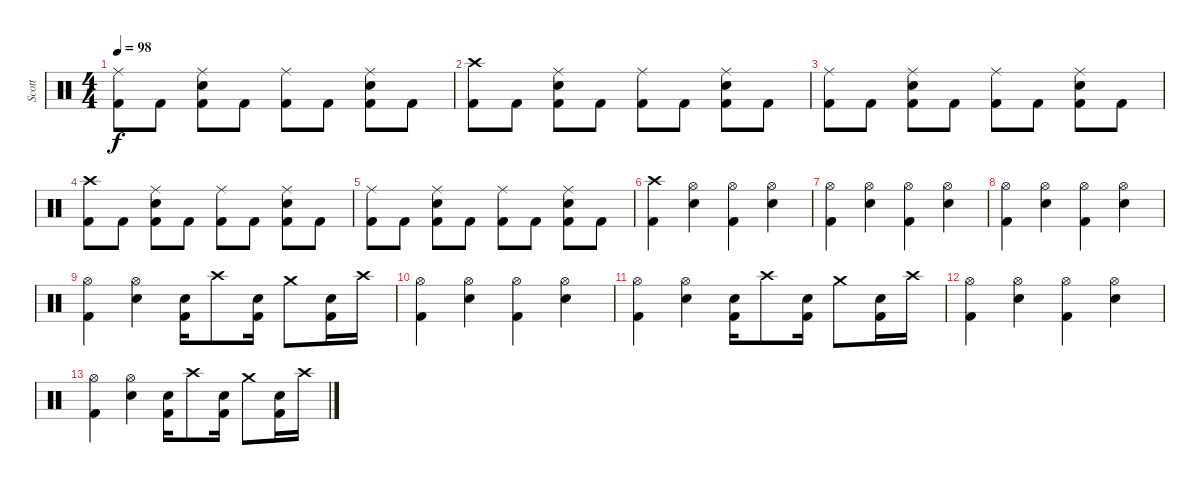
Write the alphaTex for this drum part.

\track ("Scott" "Scott") {instrument percussion}
\staff {score}
\articulation defaults
\ts (4 4)
\tempo 98
\clef neutral
\ks c
("Ride (middle)" "Kick (hit) 2").8{dy f} "Kick (hit) 2".8 ("Ride (middle)" "Electric Snare (hit)" "Kick (hit) 2").8 "Kick (hit) 2".8 ("Ride (middle)" "Kick (hit) 2").8 "Kick (hit) 2".8 ("Ride (middle)" "Electric Snare (hit)" "Kick (hit) 2").8 "Kick (hit) 2".8 |
("Crash high (hit)" "Kick (hit) 2").8 "Kick (hit) 2".8 ("Ride (middle)" "Electric Snare (hit)" "Kick (hit) 2").8 "Kick (hit) 2".8 ("Ride (middle)" "Kick (hit) 2").8 "Kick (hit) 2".8 ("Ride (middle)" "Electric Snare (hit)" "Kick (hit) 2").8 "Kick (hit) 2".8 |
("Ride (middle)" "Kick (hit) 2").8 "Kick (hit) 2".8 ("Ride (middle)" "Electric Snare (hit)" "Kick (hit) 2").8 "Kick (hit) 2".8 ("Ride (middle)" "Kick (hit) 2").8 "Kick (hit) 2".8 ("Ride (middle)" "Electric Snare (hit)" "Kick (hit) 2").8 "Kick (hit) 2".8 |
("Crash high (hit)" "Kick (hit) 2").8 "Kick (hit) 2".8 ("Ride (middle)" "Electric Snare (hit)" "Kick (hit) 2").8 "Kick (hit) 2".8 ("Ride (middle)" "Kick (hit) 2").8 "Kick (hit) 2".8 ("Ride (middle)" "Electric Snare (hit)" "Kick (hit) 2").8 "Kick (hit) 2".8 |
("Ride (middle)" "Kick (hit) 2").8 "Kick (hit) 2".8 ("Ride (middle)" "Electric Snare (hit)" "Kick (hit) 2").8 "Kick (hit) 2".8 ("Ride (middle)" "Kick (hit) 2").8 "Kick (hit) 2".8 ("Ride (middle)" "Electric Snare (hit)" "Kick (hit) 2").8 "Kick (hit) 2".8 |
("Crash high (hit)" "Kick (hit) 2").4 ("Hi-Hat (open)" "Snare (hit) 2").4 ("Hi-Hat (open)" "Kick (hit) 2").4 ("Hi-Hat (open)" "Snare (hit) 2").4 |
("Hi-Hat (open)" "Kick (hit) 2").4 ("Hi-Hat (open)" "Snare (hit) 2").4 ("Hi-Hat (open)" "Kick (hit) 2").4 ("Hi-Hat (open)" "Snare (hit) 2").4 |
("Hi-Hat (open)" "Kick (hit) 2").4 ("Hi-Hat (open)" "Snare (hit) 2").4 ("Hi-Hat (open)" "Kick (hit) 2").4 ("Hi-Hat (open)" "Snare (hit) 2").4 |
("Hi-Hat (open)" "Kick (hit) 2").4 ("Hi-Hat (open)" "Snare (hit) 2").4 ("Snare (hit) 2" "Kick (hit) 2").16 "Crash high (hit)".8 ("Snare (hit) 2" "Kick (hit) 2").16 "Crash medium (hit)".8 ("Snare (hit) 2" "Kick (hit) 2").16 "Crash high (hit)".16 |
("Hi-Hat (open)" "Kick (hit) 2").4 ("Hi-Hat (open)" "Snare (hit) 2").4 ("Hi-Hat (open)" "Kick (hit) 2").4 ("Hi-Hat (open)" "Snare (hit) 2").4 |
("Hi-Hat (open)" "Kick (hit) 2").4 ("Hi-Hat (open)" "Snare (hit) 2").4 ("Snare (hit) 2" "Kick (hit) 2").16 "Crash high (hit)".8 ("Snare (hit) 2" "Kick (hit) 2").16 "Crash medium (hit)".8 ("Snare (hit) 2" "Kick (hit) 2").16 "Crash high (hit)".16 |
("Hi-Hat (open)" "Kick (hit) 2").4 ("Hi-Hat (open)" "Snare (hit) 2").4 ("Hi-Hat (open)" "Kick (hit) 2").4 ("Hi-Hat (open)" "Snare (hit) 2").4 |
("Hi-Hat (open)" "Kick (hit) 2").4 ("Hi-Hat (open)" "Snare (hit) 2").4 ("Snare (hit) 2" "Kick (hit) 2").16 "Crash high (hit)".8 ("Snare (hit) 2" "Kick (hit) 2").16 "Crash medium (hit)".8 ("Snare (hit) 2" "Kick (hit) 2").16 "Crash high (hit)".16
